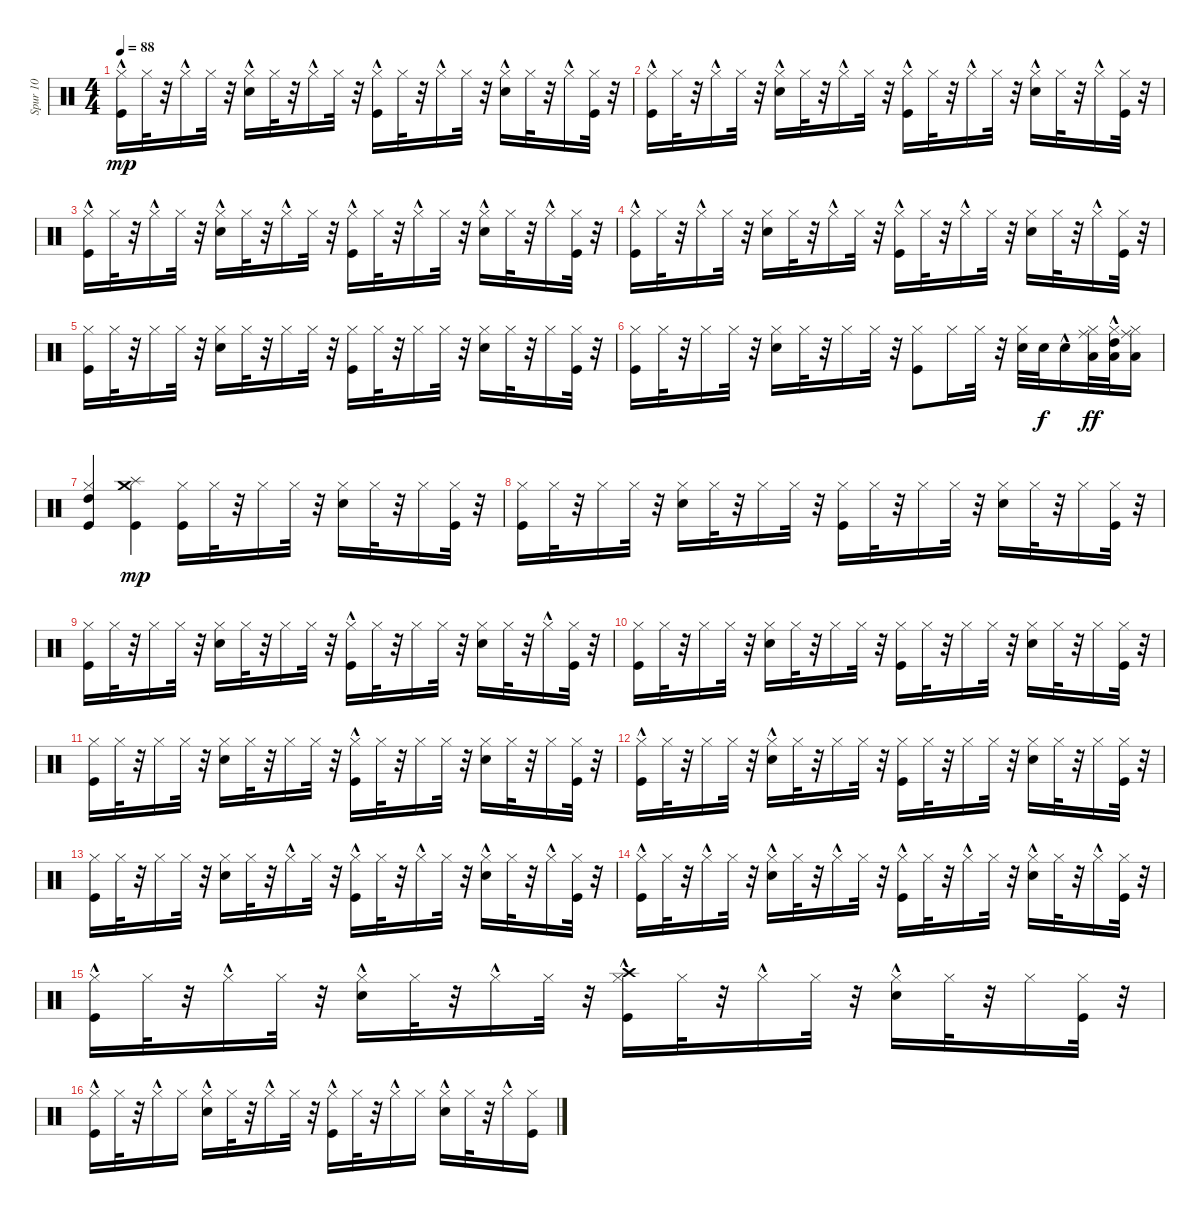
\track ("Spur 10" "Spur 10") {instrument percussion}
\staff {score}
\articulation defaults
\ts (4 4)
\tempo 88
\clef neutral
\ks c
("Kick (hit)" "Hi-Hat (closed)"{hac}).16{dy mp} "Hi-Hat (closed)".32 r.32 "Hi-Hat (closed)"{hac}.16 "Hi-Hat (closed)".32 r.32 ("Snare (hit) 2" "Hi-Hat (closed)"{hac}).16 "Hi-Hat (closed)".32 r.32 "Hi-Hat (closed)"{hac}.16 "Hi-Hat (closed)".32 r.32 ("Kick (hit)"{hac} "Hi-Hat (closed)"{hac}).16 "Hi-Hat (closed)".32 r.32 "Hi-Hat (closed)"{hac}.16 "Hi-Hat (closed)".32 r.32 ("Snare (hit) 2" "Hi-Hat (closed)"{hac}).16 "Hi-Hat (closed)".32 r.32 "Hi-Hat (closed)"{hac}.16 ("Kick (hit)" "Hi-Hat (closed)").32 r.32 |
("Kick (hit)" "Hi-Hat (closed)"{hac}).16 "Hi-Hat (closed)".32 r.32 "Hi-Hat (closed)"{hac}.16 "Hi-Hat (closed)".32 r.32 ("Snare (hit) 2" "Hi-Hat (closed)"{hac}).16 "Hi-Hat (closed)".32 r.32 "Hi-Hat (closed)"{hac}.16 "Hi-Hat (closed)".32 r.32 ("Kick (hit)"{hac} "Hi-Hat (closed)"{hac}).16 "Hi-Hat (closed)".32 r.32 "Hi-Hat (closed)"{hac}.16 "Hi-Hat (closed)".32 r.32 ("Snare (hit) 2" "Hi-Hat (closed)"{hac}).16 "Hi-Hat (closed)".32 r.32 "Hi-Hat (closed)"{hac}.16 ("Kick (hit)" "Hi-Hat (closed)").32 r.32 |
("Kick (hit)" "Hi-Hat (closed)"{hac}).16 "Hi-Hat (closed)".32 r.32 "Hi-Hat (closed)"{hac}.16 "Hi-Hat (closed)".32 r.32 ("Snare (hit) 2" "Hi-Hat (closed)"{hac}).16 "Hi-Hat (closed)".32 r.32 "Hi-Hat (closed)"{hac}.16 "Hi-Hat (closed)".32 r.32 ("Kick (hit)"{hac} "Hi-Hat (closed)"{hac}).16 "Hi-Hat (closed)".32 r.32 "Hi-Hat (closed)"{hac}.16 "Hi-Hat (closed)".32 r.32 ("Snare (hit) 2" "Hi-Hat (closed)"{hac}).16 "Hi-Hat (closed)".32 r.32 "Hi-Hat (closed)"{hac}.16 ("Kick (hit)" "Hi-Hat (closed)").32 r.32 |
("Kick (hit)" "Hi-Hat (closed)"{hac}).16 "Hi-Hat (closed)".32 r.32 "Hi-Hat (closed)"{hac}.16 "Hi-Hat (closed)".32 r.32 ("Snare (hit) 2" "Hi-Hat (closed)").16 "Hi-Hat (closed)".32 r.32 "Hi-Hat (closed)"{hac}.16 "Hi-Hat (closed)".32 r.32 ("Kick (hit)"{hac} "Hi-Hat (closed)"{hac}).16 "Hi-Hat (closed)".32 r.32 "Hi-Hat (closed)"{hac}.16 "Hi-Hat (closed)".32 r.32 ("Snare (hit) 2" "Hi-Hat (closed)").16 "Hi-Hat (closed)".32 r.32 "Hi-Hat (closed)"{hac}.16 ("Kick (hit)" "Hi-Hat (closed)").32 r.32 |
("Kick (hit)" "Hi-Hat (closed)").16 "Hi-Hat (closed)".32 r.32 "Hi-Hat (closed)".16 "Hi-Hat (closed)".32 r.32 ("Snare (hit) 2" "Hi-Hat (closed)").16 "Hi-Hat (closed)".32 r.32 "Hi-Hat (closed)".16 "Hi-Hat (closed)".32 r.32 ("Kick (hit)" "Hi-Hat (closed)").16 "Hi-Hat (closed)".32 r.32 "Hi-Hat (closed)".16 "Hi-Hat (closed)".32 r.32 ("Snare (hit) 2" "Hi-Hat (closed)").16 "Hi-Hat (closed)".32 r.32 "Hi-Hat (closed)".16 ("Kick (hit)" "Hi-Hat (closed)").32 r.32 |
("Kick (hit)" "Hi-Hat (closed)").16 "Hi-Hat (closed)".32 r.32 "Hi-Hat (closed)".16 "Hi-Hat (closed)".32 r.32 ("Snare (hit) 2" "Hi-Hat (closed)").16 "Hi-Hat (closed)".32 r.32 "Hi-Hat (closed)".16 "Hi-Hat (closed)".32 r.32 ("Kick (hit)" "Hi-Hat (closed)").8 "Hi-Hat (closed)".16 "Hi-Hat (closed)".32 r.32 ("Snare (hit) 2" "Hi-Hat (closed)").32 "Snare (hit) 2".32{dy f} "Snare (hit) 2"{hac}.16 ("Hi-Hat (closed)" "Low Tom (hit)" "Ride (middle)").32{dy ff} ("Low Floor Tom (hit)" "Hi-Hat (closed)" "High Tom (hit)"{hac}).32 ("Low Floor Tom (hit)" "Hi-Hat (closed)" "Ride (middle)").16 |
("Kick (hit)" "Hi-Hat (closed)" "High Tom (hit)").4 ("Kick (hit)" "Splash (hit)" "Crash medium (hit)").4{dy mp} ("Kick (hit)" "Hi-Hat (closed)").16 "Hi-Hat (closed)".32 r.32 "Hi-Hat (closed)".16 "Hi-Hat (closed)".32 r.32 ("Snare (hit) 2" "Hi-Hat (closed)").16 "Hi-Hat (closed)".32 r.32 "Hi-Hat (closed)".16 ("Kick (hit)" "Hi-Hat (closed)").32 r.32 |
("Kick (hit)" "Hi-Hat (closed)").16 "Hi-Hat (closed)".32 r.32 "Hi-Hat (closed)".16 "Hi-Hat (closed)".32 r.32 ("Snare (hit) 2" "Hi-Hat (closed)").16 "Hi-Hat (closed)".32 r.32 "Hi-Hat (closed)".16 "Hi-Hat (closed)".32 r.32 ("Kick (hit)" "Hi-Hat (closed)").16 "Hi-Hat (closed)".32 r.32 "Hi-Hat (closed)".16 "Hi-Hat (closed)".32 r.32 ("Snare (hit) 2" "Hi-Hat (closed)").16 "Hi-Hat (closed)".32 r.32 "Hi-Hat (closed)".16 ("Kick (hit)" "Hi-Hat (closed)").32 r.32 |
("Kick (hit)" "Hi-Hat (closed)").16 "Hi-Hat (closed)".32 r.32 "Hi-Hat (closed)".16 "Hi-Hat (closed)".32 r.32 ("Snare (hit) 2" "Hi-Hat (closed)").16 "Hi-Hat (closed)".32 r.32 "Hi-Hat (closed)".16 "Hi-Hat (closed)".32 r.32 ("Kick (hit)"{hac} "Hi-Hat (closed)").16 "Hi-Hat (closed)".32 r.32 "Hi-Hat (closed)".16 "Hi-Hat (closed)".32 r.32 ("Snare (hit) 2" "Hi-Hat (closed)").16 "Hi-Hat (closed)".32 r.32 "Hi-Hat (closed)"{hac}.16 ("Kick (hit)" "Hi-Hat (closed)").32 r.32 |
("Kick (hit)" "Hi-Hat (closed)").16 "Hi-Hat (closed)".32 r.32 "Hi-Hat (closed)".16 "Hi-Hat (closed)".32 r.32 ("Snare (hit) 2" "Hi-Hat (closed)").16 "Hi-Hat (closed)".32 r.32 "Hi-Hat (closed)".16 "Hi-Hat (closed)".32 r.32 ("Kick (hit)" "Hi-Hat (closed)").16 "Hi-Hat (closed)".32 r.32 "Hi-Hat (closed)".16 "Hi-Hat (closed)".32 r.32 ("Snare (hit) 2" "Hi-Hat (closed)").16 "Hi-Hat (closed)".32 r.32 "Hi-Hat (closed)".16 ("Kick (hit)" "Hi-Hat (closed)").32 r.32 |
("Kick (hit)" "Hi-Hat (closed)").16 "Hi-Hat (closed)".32 r.32 "Hi-Hat (closed)".16 "Hi-Hat (closed)".32 r.32 ("Snare (hit) 2" "Hi-Hat (closed)").16 "Hi-Hat (closed)".32 r.32 "Hi-Hat (closed)".16 "Hi-Hat (closed)".32 r.32 ("Kick (hit)" "Hi-Hat (closed)"{hac}).16 "Hi-Hat (closed)".32 r.32 "Hi-Hat (closed)".16 "Hi-Hat (closed)".32 r.32 ("Snare (hit) 2" "Hi-Hat (closed)").16 "Hi-Hat (closed)".32 r.32 "Hi-Hat (closed)".16 ("Kick (hit)" "Hi-Hat (closed)").32 r.32 |
("Kick (hit)" "Hi-Hat (closed)"{hac}).16 "Hi-Hat (closed)".32 r.32 "Hi-Hat (closed)".16 "Hi-Hat (closed)".32 r.32 ("Snare (hit) 2" "Hi-Hat (closed)"{hac}).16 "Hi-Hat (closed)".32 r.32 "Hi-Hat (closed)".16 "Hi-Hat (closed)".32 r.32 ("Kick (hit)" "Hi-Hat (closed)").16 "Hi-Hat (closed)".32 r.32 "Hi-Hat (closed)".16 "Hi-Hat (closed)".32 r.32 ("Snare (hit) 2" "Hi-Hat (closed)").16 "Hi-Hat (closed)".32 r.32 "Hi-Hat (closed)".16 ("Kick (hit)" "Hi-Hat (closed)").32 r.32 |
("Kick (hit)" "Hi-Hat (closed)").16 "Hi-Hat (closed)".32 r.32 "Hi-Hat (closed)".16 "Hi-Hat (closed)".32 r.32 ("Snare (hit) 2" "Hi-Hat (closed)").16 "Hi-Hat (closed)".32 r.32 "Hi-Hat (closed)"{hac}.16 "Hi-Hat (closed)".32 r.32 ("Kick (hit)"{hac} "Hi-Hat (closed)"{hac}).16 "Hi-Hat (closed)".32 r.32 "Hi-Hat (closed)"{hac}.16 "Hi-Hat (closed)".32 r.32 ("Snare (hit) 2" "Hi-Hat (closed)"{hac}).16 "Hi-Hat (closed)".32 r.32 "Hi-Hat (closed)"{hac}.16 ("Kick (hit)" "Hi-Hat (closed)").32 r.32 |
("Kick (hit)" "Hi-Hat (closed)"{hac}).16 "Hi-Hat (closed)".32 r.32 "Hi-Hat (closed)"{hac}.16 "Hi-Hat (closed)".32 r.32 ("Snare (hit) 2" "Hi-Hat (closed)"{hac}).16 "Hi-Hat (closed)".32 r.32 "Hi-Hat (closed)"{hac}.16 "Hi-Hat (closed)".32 r.32 ("Kick (hit)"{hac} "Hi-Hat (closed)"{hac}).16 "Hi-Hat (closed)".32 r.32 "Hi-Hat (closed)"{hac}.16 "Hi-Hat (closed)".32 r.32 ("Snare (hit) 2" "Hi-Hat (closed)"{hac}).16 "Hi-Hat (closed)".32 r.32 "Hi-Hat (closed)"{hac}.16 ("Kick (hit)" "Hi-Hat (closed)").32 r.32 |
("Kick (hit)" "Hi-Hat (closed)"{hac}).16 "Hi-Hat (closed)".32 r.32 "Hi-Hat (closed)"{hac}.16 "Hi-Hat (closed)".32 r.32 ("Snare (hit) 2" "Hi-Hat (closed)"{hac}).16 "Hi-Hat (closed)".32 r.32 "Hi-Hat (closed)"{hac}.16 "Hi-Hat (closed)".32 r.32 ("Kick (hit)" "Hi-Hat (closed)"{hac} "Crash high (hit)").16 "Hi-Hat (closed)".32 r.32 "Hi-Hat (closed)"{hac}.16 "Hi-Hat (closed)".32 r.32 ("Snare (hit) 2" "Hi-Hat (closed)"{hac}).16 "Hi-Hat (closed)".32 r.32 "Hi-Hat (closed)".16 ("Kick (hit)" "Hi-Hat (closed)").32 r.32 |
("Kick (hit)" "Hi-Hat (closed)"{hac}).16 "Hi-Hat (closed)".32 r.32 "Hi-Hat (closed)"{hac}.16 "Hi-Hat (closed)".16 ("Snare (hit) 2" "Hi-Hat (closed)"{hac}).16 "Hi-Hat (closed)".32 r.32 "Hi-Hat (closed)"{hac}.16 "Hi-Hat (closed)".32 r.32 ("Kick (hit)"{hac} "Hi-Hat (closed)"{hac}).16 "Hi-Hat (closed)".32 r.32 "Hi-Hat (closed)"{hac}.16 "Hi-Hat (closed)".16 ("Snare (hit) 2" "Hi-Hat (closed)"{hac}).16 "Hi-Hat (closed)".32 r.32 "Hi-Hat (closed)"{hac}.16 ("Kick (hit)" "Hi-Hat (closed)").16
